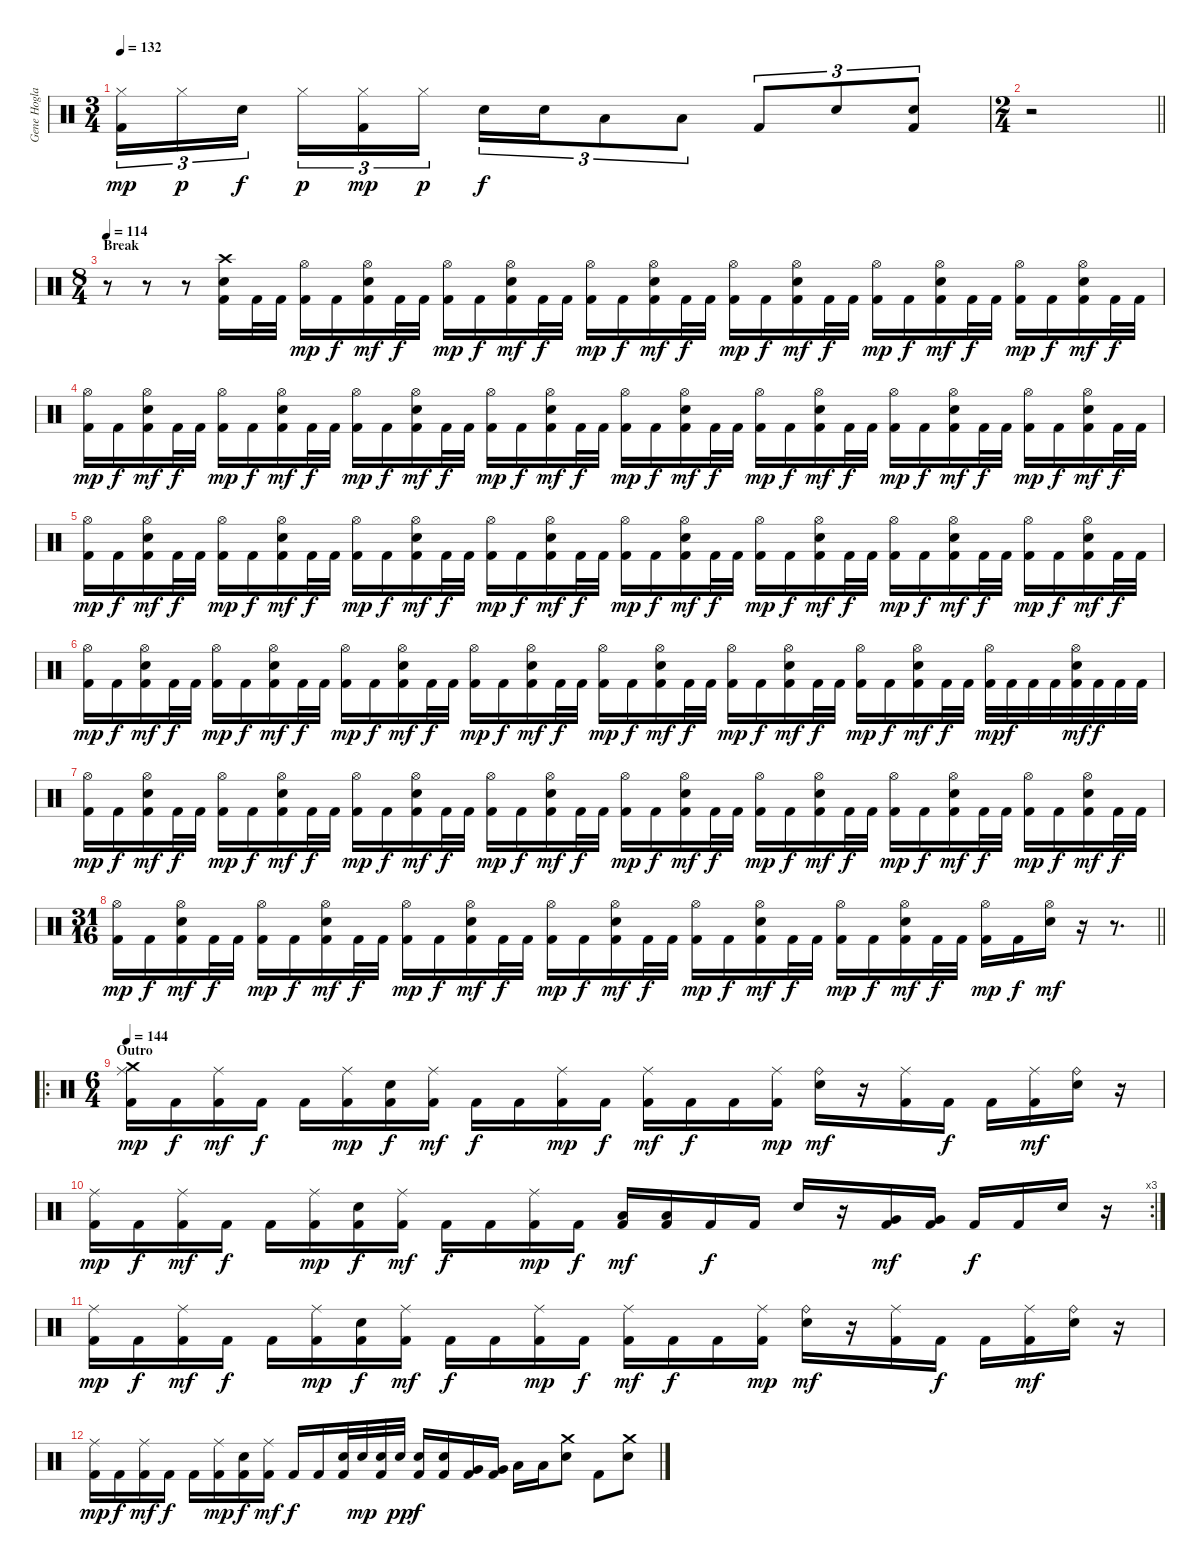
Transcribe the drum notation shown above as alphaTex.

\track ("Gene Hoglan" "Gene Hogla") {instrument percussion}
\staff {score}
\articulation defaults
\ts (3 4)
\tempo 132
\clef neutral
\ks c
("Hi-Hat (closed)" "Kick (hit) 2").16{tu (3 2) dy mp} "Hi-Hat (closed)".16{tu (3 2) dy p} "Electric Snare (hit)".16{tu (3 2) dy f beam splitsecondary} "Hi-Hat (closed)".16{tu (3 2) dy p} ("Hi-Hat (closed)" "Kick (hit) 2").16{tu (3 2) dy mp} "Hi-Hat (closed)".16{tu (3 2) dy p} "Electric Snare (hit)".16{tu (3 2) dy f} "Electric Snare (hit)".16{tu (3 2)} "Low Tom (hit)".8{tu (3 2)} "Low Tom (hit)".8{tu (3 2)} "Kick (hit) 2".8{tu (3 2)} "Electric Snare (hit)".8{tu (3 2)} ("Electric Snare (hit)" "Kick (hit) 2").8{tu (3 2)} |
\ts (2 4)
\barLineRight lightlight
r.2 |
\ts (8 4)
\section ("" "Break")
\tempo 114
r.8 r.8 r.8 ("Crash high (hit)" "Electric Snare (hit)" "Kick (hit) 2").16 "Kick (hit) 2".32 "Kick (hit) 2".32 ("Hi-Hat (open)" "Kick (hit) 2").16{dy mp} "Kick (hit) 2".16{dy f} ("Hi-Hat (open)" "Electric Snare (hit)" "Kick (hit) 2").16{dy mf} "Kick (hit) 2".32{dy f} "Kick (hit) 2".32 ("Hi-Hat (open)" "Kick (hit) 2").16{dy mp} "Kick (hit) 2".16{dy f} ("Hi-Hat (open)" "Electric Snare (hit)" "Kick (hit) 2").16{dy mf} "Kick (hit) 2".32{dy f} "Kick (hit) 2".32 ("Hi-Hat (open)" "Kick (hit) 2").16{dy mp} "Kick (hit) 2".16{dy f} ("Hi-Hat (open)" "Electric Snare (hit)" "Kick (hit) 2").16{dy mf} "Kick (hit) 2".32{dy f} "Kick (hit) 2".32 ("Hi-Hat (open)" "Kick (hit) 2").16{dy mp} "Kick (hit) 2".16{dy f} ("Hi-Hat (open)" "Electric Snare (hit)" "Kick (hit) 2").16{dy mf} "Kick (hit) 2".32{dy f} "Kick (hit) 2".32 ("Hi-Hat (open)" "Kick (hit) 2").16{dy mp} "Kick (hit) 2".16{dy f} ("Hi-Hat (open)" "Electric Snare (hit)" "Kick (hit) 2").16{dy mf} "Kick (hit) 2".32{dy f} "Kick (hit) 2".32 ("Hi-Hat (open)" "Kick (hit) 2").16{dy mp} "Kick (hit) 2".16{dy f} ("Hi-Hat (open)" "Electric Snare (hit)" "Kick (hit) 2").16{dy mf} "Kick (hit) 2".32{dy f} "Kick (hit) 2".32 |
("Hi-Hat (open)" "Kick (hit) 2").16{dy mp} "Kick (hit) 2".16{dy f} ("Hi-Hat (open)" "Electric Snare (hit)" "Kick (hit) 2").16{dy mf} "Kick (hit) 2".32{dy f} "Kick (hit) 2".32 ("Hi-Hat (open)" "Kick (hit) 2").16{dy mp} "Kick (hit) 2".16{dy f} ("Hi-Hat (open)" "Electric Snare (hit)" "Kick (hit) 2").16{dy mf} "Kick (hit) 2".32{dy f} "Kick (hit) 2".32 ("Hi-Hat (open)" "Kick (hit) 2").16{dy mp} "Kick (hit) 2".16{dy f} ("Hi-Hat (open)" "Electric Snare (hit)" "Kick (hit) 2").16{dy mf} "Kick (hit) 2".32{dy f} "Kick (hit) 2".32 ("Hi-Hat (open)" "Kick (hit) 2").16{dy mp} "Kick (hit) 2".16{dy f} ("Hi-Hat (open)" "Electric Snare (hit)" "Kick (hit) 2").16{dy mf} "Kick (hit) 2".32{dy f} "Kick (hit) 2".32 ("Hi-Hat (open)" "Kick (hit) 2").16{dy mp} "Kick (hit) 2".16{dy f} ("Hi-Hat (open)" "Electric Snare (hit)" "Kick (hit) 2").16{dy mf} "Kick (hit) 2".32{dy f} "Kick (hit) 2".32 ("Hi-Hat (open)" "Kick (hit) 2").16{dy mp} "Kick (hit) 2".16{dy f} ("Hi-Hat (open)" "Electric Snare (hit)" "Kick (hit) 2").16{dy mf} "Kick (hit) 2".32{dy f} "Kick (hit) 2".32 ("Hi-Hat (open)" "Kick (hit) 2").16{dy mp} "Kick (hit) 2".16{dy f} ("Hi-Hat (open)" "Electric Snare (hit)" "Kick (hit) 2").16{dy mf} "Kick (hit) 2".32{dy f} "Kick (hit) 2".32 ("Hi-Hat (open)" "Kick (hit) 2").16{dy mp} "Kick (hit) 2".16{dy f} ("Hi-Hat (open)" "Electric Snare (hit)" "Kick (hit) 2").16{dy mf} "Kick (hit) 2".32{dy f} "Kick (hit) 2".32 |
("Hi-Hat (open)" "Kick (hit) 2").16{dy mp} "Kick (hit) 2".16{dy f} ("Hi-Hat (open)" "Electric Snare (hit)" "Kick (hit) 2").16{dy mf} "Kick (hit) 2".32{dy f} "Kick (hit) 2".32 ("Hi-Hat (open)" "Kick (hit) 2").16{dy mp} "Kick (hit) 2".16{dy f} ("Hi-Hat (open)" "Electric Snare (hit)" "Kick (hit) 2").16{dy mf} "Kick (hit) 2".32{dy f} "Kick (hit) 2".32 ("Hi-Hat (open)" "Kick (hit) 2").16{dy mp} "Kick (hit) 2".16{dy f} ("Hi-Hat (open)" "Electric Snare (hit)" "Kick (hit) 2").16{dy mf} "Kick (hit) 2".32{dy f} "Kick (hit) 2".32 ("Hi-Hat (open)" "Kick (hit) 2").16{dy mp} "Kick (hit) 2".16{dy f} ("Hi-Hat (open)" "Electric Snare (hit)" "Kick (hit) 2").16{dy mf} "Kick (hit) 2".32{dy f} "Kick (hit) 2".32 ("Hi-Hat (open)" "Kick (hit) 2").16{dy mp} "Kick (hit) 2".16{dy f} ("Hi-Hat (open)" "Electric Snare (hit)" "Kick (hit) 2").16{dy mf} "Kick (hit) 2".32{dy f} "Kick (hit) 2".32 ("Hi-Hat (open)" "Kick (hit) 2").16{dy mp} "Kick (hit) 2".16{dy f} ("Hi-Hat (open)" "Electric Snare (hit)" "Kick (hit) 2").16{dy mf} "Kick (hit) 2".32{dy f} "Kick (hit) 2".32 ("Hi-Hat (open)" "Kick (hit) 2").16{dy mp} "Kick (hit) 2".16{dy f} ("Hi-Hat (open)" "Electric Snare (hit)" "Kick (hit) 2").16{dy mf} "Kick (hit) 2".32{dy f} "Kick (hit) 2".32 ("Hi-Hat (open)" "Kick (hit) 2").16{dy mp} "Kick (hit) 2".16{dy f} ("Hi-Hat (open)" "Electric Snare (hit)" "Kick (hit) 2").16{dy mf} "Kick (hit) 2".32{dy f} "Kick (hit) 2".32 |
("Hi-Hat (open)" "Kick (hit) 2").16{dy mp} "Kick (hit) 2".16{dy f} ("Hi-Hat (open)" "Electric Snare (hit)" "Kick (hit) 2").16{dy mf} "Kick (hit) 2".32{dy f} "Kick (hit) 2".32 ("Hi-Hat (open)" "Kick (hit) 2").16{dy mp} "Kick (hit) 2".16{dy f} ("Hi-Hat (open)" "Electric Snare (hit)" "Kick (hit) 2").16{dy mf} "Kick (hit) 2".32{dy f} "Kick (hit) 2".32 ("Hi-Hat (open)" "Kick (hit) 2").16{dy mp} "Kick (hit) 2".16{dy f} ("Hi-Hat (open)" "Electric Snare (hit)" "Kick (hit) 2").16{dy mf} "Kick (hit) 2".32{dy f} "Kick (hit) 2".32 ("Hi-Hat (open)" "Kick (hit) 2").16{dy mp} "Kick (hit) 2".16{dy f} ("Hi-Hat (open)" "Electric Snare (hit)" "Kick (hit) 2").16{dy mf} "Kick (hit) 2".32{dy f} "Kick (hit) 2".32 ("Hi-Hat (open)" "Kick (hit) 2").16{dy mp} "Kick (hit) 2".16{dy f} ("Hi-Hat (open)" "Electric Snare (hit)" "Kick (hit) 2").16{dy mf} "Kick (hit) 2".32{dy f} "Kick (hit) 2".32 ("Hi-Hat (open)" "Kick (hit) 2").16{dy mp} "Kick (hit) 2".16{dy f} ("Hi-Hat (open)" "Electric Snare (hit)" "Kick (hit) 2").16{dy mf} "Kick (hit) 2".32{dy f} "Kick (hit) 2".32 ("Hi-Hat (open)" "Kick (hit) 2").16{dy mp} "Kick (hit) 2".16{dy f} ("Hi-Hat (open)" "Electric Snare (hit)" "Kick (hit) 2").16{dy mf} "Kick (hit) 2".32{dy f} "Kick (hit) 2".32 ("Hi-Hat (open)" "Kick (hit) 2").32{dy mp} "Kick (hit) 2".32{dy f} "Kick (hit) 2".32 "Kick (hit) 2".32 ("Hi-Hat (open)" "Electric Snare (hit)" "Kick (hit) 2").32{dy mf} "Kick (hit) 2".32{dy f} "Kick (hit) 2".32 "Kick (hit) 2".32 |
("Hi-Hat (open)" "Kick (hit) 2").16{dy mp} "Kick (hit) 2".16{dy f} ("Hi-Hat (open)" "Electric Snare (hit)" "Kick (hit) 2").16{dy mf} "Kick (hit) 2".32{dy f} "Kick (hit) 2".32 ("Hi-Hat (open)" "Kick (hit) 2").16{dy mp} "Kick (hit) 2".16{dy f} ("Hi-Hat (open)" "Electric Snare (hit)" "Kick (hit) 2").16{dy mf} "Kick (hit) 2".32{dy f} "Kick (hit) 2".32 ("Hi-Hat (open)" "Kick (hit) 2").16{dy mp} "Kick (hit) 2".16{dy f} ("Hi-Hat (open)" "Electric Snare (hit)" "Kick (hit) 2").16{dy mf} "Kick (hit) 2".32{dy f} "Kick (hit) 2".32 ("Hi-Hat (open)" "Kick (hit) 2").16{dy mp} "Kick (hit) 2".16{dy f} ("Hi-Hat (open)" "Electric Snare (hit)" "Kick (hit) 2").16{dy mf} "Kick (hit) 2".32{dy f} "Kick (hit) 2".32 ("Hi-Hat (open)" "Kick (hit) 2").16{dy mp} "Kick (hit) 2".16{dy f} ("Hi-Hat (open)" "Electric Snare (hit)" "Kick (hit) 2").16{dy mf} "Kick (hit) 2".32{dy f} "Kick (hit) 2".32 ("Hi-Hat (open)" "Kick (hit) 2").16{dy mp} "Kick (hit) 2".16{dy f} ("Hi-Hat (open)" "Electric Snare (hit)" "Kick (hit) 2").16{dy mf} "Kick (hit) 2".32{dy f} "Kick (hit) 2".32 ("Hi-Hat (open)" "Kick (hit) 2").16{dy mp} "Kick (hit) 2".16{dy f} ("Hi-Hat (open)" "Electric Snare (hit)" "Kick (hit) 2").16{dy mf} "Kick (hit) 2".32{dy f} "Kick (hit) 2".32 ("Hi-Hat (open)" "Kick (hit) 2").16{dy mp} "Kick (hit) 2".16{dy f} ("Hi-Hat (open)" "Electric Snare (hit)" "Kick (hit) 2").16{dy mf} "Kick (hit) 2".32{dy f} "Kick (hit) 2".32 |
\ts (31 16)
\barLineRight lightlight
("Hi-Hat (open)" "Kick (hit) 2").16{dy mp} "Kick (hit) 2".16{dy f} ("Hi-Hat (open)" "Electric Snare (hit)" "Kick (hit) 2").16{dy mf} "Kick (hit) 2".32{dy f} "Kick (hit) 2".32 ("Hi-Hat (open)" "Kick (hit) 2").16{dy mp} "Kick (hit) 2".16{dy f} ("Hi-Hat (open)" "Electric Snare (hit)" "Kick (hit) 2").16{dy mf} "Kick (hit) 2".32{dy f} "Kick (hit) 2".32 ("Hi-Hat (open)" "Kick (hit) 2").16{dy mp} "Kick (hit) 2".16{dy f} ("Hi-Hat (open)" "Electric Snare (hit)" "Kick (hit) 2").16{dy mf} "Kick (hit) 2".32{dy f} "Kick (hit) 2".32 ("Hi-Hat (open)" "Kick (hit) 2").16{dy mp} "Kick (hit) 2".16{dy f} ("Hi-Hat (open)" "Electric Snare (hit)" "Kick (hit) 2").16{dy mf} "Kick (hit) 2".32{dy f} "Kick (hit) 2".32 ("Hi-Hat (open)" "Kick (hit) 2").16{dy mp} "Kick (hit) 2".16{dy f} ("Hi-Hat (open)" "Electric Snare (hit)" "Kick (hit) 2").16{dy mf} "Kick (hit) 2".32{dy f} "Kick (hit) 2".32 ("Hi-Hat (open)" "Kick (hit) 2").16{dy mp} "Kick (hit) 2".16{dy f} ("Hi-Hat (open)" "Electric Snare (hit)" "Kick (hit) 2").16{dy mf} "Kick (hit) 2".32{dy f} "Kick (hit) 2".32 ("Hi-Hat (open)" "Kick (hit) 2").16{dy mp} "Kick (hit) 2".16{dy f} ("Hi-Hat (open)" "Electric Snare (hit)").16{dy mf} r.16 r.8{d} |
\ro
\ts (6 4)
\section ("" "Outro")
\tempo 144
("Crash medium (hit)" "Ride (middle)" "Kick (hit) 2").16{dy mp} "Kick (hit) 2".16{dy f} ("Ride (middle)" "Kick (hit) 2").16{dy mf} "Kick (hit) 2".16{dy f} "Kick (hit) 2".16 ("Ride (middle)" "Kick (hit) 2").16{dy mp} ("Electric Snare (hit)" "Kick (hit) 2").16{dy f} ("Ride (middle)" "Kick (hit) 2").16{dy mf} "Kick (hit) 2".16{dy f} "Kick (hit) 2".16 ("Ride (middle)" "Kick (hit) 2").16{dy mp} "Kick (hit) 2".16{dy f} ("Ride (middle)" "Kick (hit) 2").16{dy mf} "Kick (hit) 2".16{dy f} "Kick (hit) 2".16 ("Ride (middle)" "Kick (hit) 2").16{dy mp} ("Ride (bell)" "Electric Snare (hit)").16{dy mf} r.16 ("Ride (middle)" "Kick (hit) 2").16 "Kick (hit) 2".16{dy f} "Kick (hit) 2".16 ("Ride (middle)" "Kick (hit) 2").16{dy mf} ("Ride (bell)" "Electric Snare (hit)").16 r.16 |
\rc 3
("Ride (middle)" "Kick (hit) 2").16{dy mp} "Kick (hit) 2".16{dy f} ("Ride (middle)" "Kick (hit) 2").16{dy mf} "Kick (hit) 2".16{dy f} "Kick (hit) 2".16 ("Ride (middle)" "Kick (hit) 2").16{dy mp} ("Electric Snare (hit)" "Kick (hit) 2").16{dy f} ("Ride (middle)" "Kick (hit) 2").16{dy mf} "Kick (hit) 2".16{dy f} "Kick (hit) 2".16 ("Ride (middle)" "Kick (hit) 2").16{dy mp} "Kick (hit) 2".16{dy f} ("Low Tom (hit)" "Kick (hit) 2").16{dy mf} ("Low Tom (hit)" "Kick (hit) 2").16 "Kick (hit) 2".16{dy f} "Kick (hit) 2".16 "Electric Snare (hit)".16 r.16 ("Very Low Tom (hit)" "Kick (hit) 2").16{dy mf} ("Very Low Tom (hit)" "Kick (hit) 2").16 "Kick (hit) 2".16{dy f} "Kick (hit) 2".16 "Electric Snare (hit)".16 r.16 |
("Ride (middle)" "Kick (hit) 2").16{dy mp} "Kick (hit) 2".16{dy f} ("Ride (middle)" "Kick (hit) 2").16{dy mf} "Kick (hit) 2".16{dy f} "Kick (hit) 2".16 ("Ride (middle)" "Kick (hit) 2").16{dy mp} ("Electric Snare (hit)" "Kick (hit) 2").16{dy f} ("Ride (middle)" "Kick (hit) 2").16{dy mf} "Kick (hit) 2".16{dy f} "Kick (hit) 2".16 ("Ride (middle)" "Kick (hit) 2").16{dy mp} "Kick (hit) 2".16{dy f} ("Ride (middle)" "Kick (hit) 2").16{dy mf} "Kick (hit) 2".16{dy f} "Kick (hit) 2".16 ("Ride (middle)" "Kick (hit) 2").16{dy mp} ("Ride (bell)" "Electric Snare (hit)").16{dy mf} r.16 ("Ride (middle)" "Kick (hit) 2").16 "Kick (hit) 2".16{dy f} "Kick (hit) 2".16 ("Ride (middle)" "Kick (hit) 2").16{dy mf} ("Ride (bell)" "Electric Snare (hit)").16 r.16 |
("Ride (middle)" "Kick (hit) 2").16{dy mp} "Kick (hit) 2".16{dy f} ("Ride (middle)" "Kick (hit) 2").16{dy mf} "Kick (hit) 2".16{dy f} "Kick (hit) 2".16 ("Ride (middle)" "Kick (hit) 2").16{dy mp} ("Electric Snare (hit)" "Kick (hit) 2").16{dy f} ("Ride (middle)" "Kick (hit) 2").16{dy mf} "Kick (hit) 2".16{dy f} "Kick (hit) 2".16 ("Electric Snare (hit)" "Kick (hit) 2").32 "Electric Snare (hit)".32{dy mp} ("Electric Snare (hit)" "Kick (hit) 2").32 "Electric Snare (hit)".32{dy pp} ("Electric Snare (hit)" "Kick (hit) 2").16{dy f} ("Electric Snare (hit)" "Kick (hit) 2").16 ("Very Low Tom (hit)" "Kick (hit) 2").16 ("Very Low Tom (hit)" "Kick (hit) 2").16 "Low Floor Tom (hit)".16 "Low Floor Tom (hit)".16 ("Crash medium (hit)" "Electric Snare (hit)").8 "Kick (hit) 2".8 ("Crash medium (hit)" "Electric Snare (hit)").8
